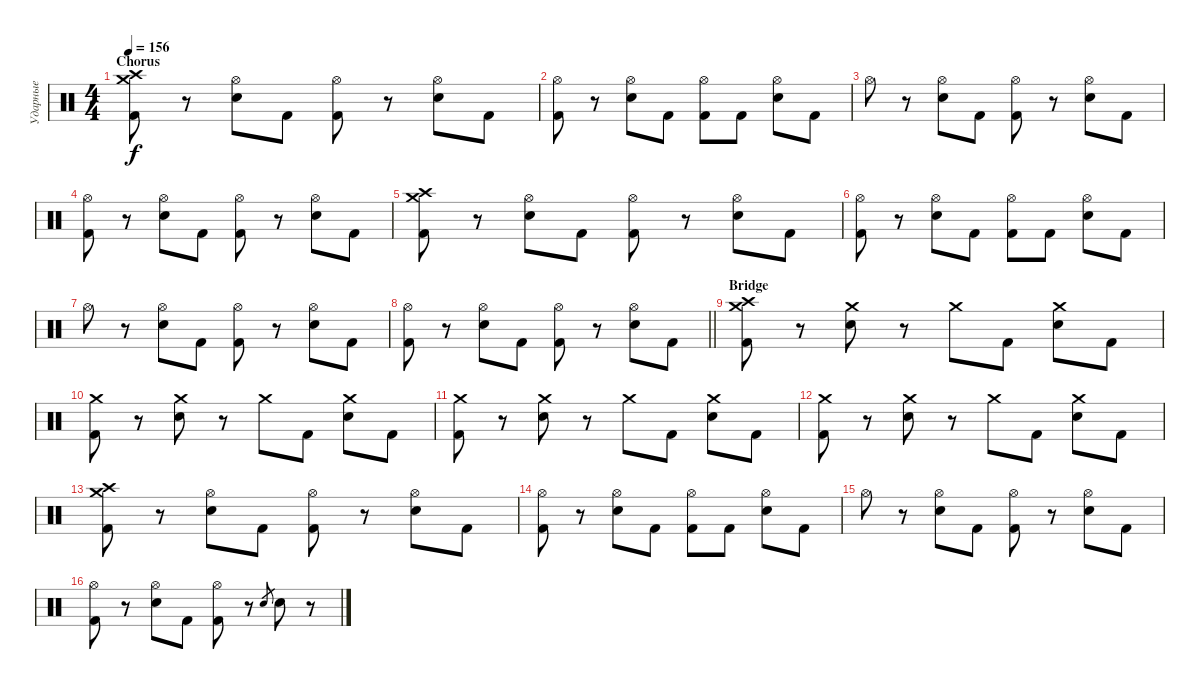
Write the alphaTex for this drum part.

\track ("Ударные" "Ударные") {instrument percussion}
\staff {score}
\articulation defaults
\ts (4 4)
\section ("" "Chorus")
\tempo 156
\clef neutral
\ks c
("Crash medium (hit)" "Crash high (hit)" "Kick (hit) 2").8{dy f} r.8 ("Hi-Hat (open)" "Electric Snare (hit)").8 "Kick (hit) 2".8 ("Hi-Hat (open)" "Kick (hit) 2").8 r.8 ("Hi-Hat (open)" "Electric Snare (hit)").8 "Kick (hit) 2".8 |
("Hi-Hat (open)" "Kick (hit) 2").8 r.8 ("Hi-Hat (open)" "Electric Snare (hit)").8 "Kick (hit) 2".8 ("Hi-Hat (open)" "Kick (hit) 2").8 "Kick (hit) 2".8 ("Hi-Hat (open)" "Electric Snare (hit)").8 "Kick (hit) 2".8 |
"Hi-Hat (open)".8 r.8 ("Hi-Hat (open)" "Electric Snare (hit)").8 "Kick (hit) 2".8 ("Hi-Hat (open)" "Kick (hit) 2").8 r.8 ("Hi-Hat (open)" "Electric Snare (hit)").8 "Kick (hit) 2".8 |
("Hi-Hat (open)" "Kick (hit) 2").8 r.8 ("Hi-Hat (open)" "Electric Snare (hit)").8 "Kick (hit) 2".8 ("Hi-Hat (open)" "Kick (hit) 2").8 r.8 ("Hi-Hat (open)" "Electric Snare (hit)").8 "Kick (hit) 2".8 |
("Crash medium (hit)" "Crash high (hit)" "Kick (hit) 2").8 r.8 ("Hi-Hat (open)" "Electric Snare (hit)").8 "Kick (hit) 2".8 ("Hi-Hat (open)" "Kick (hit) 2").8 r.8 ("Hi-Hat (open)" "Electric Snare (hit)").8 "Kick (hit) 2".8 |
("Hi-Hat (open)" "Kick (hit) 2").8 r.8 ("Hi-Hat (open)" "Electric Snare (hit)").8 "Kick (hit) 2".8 ("Hi-Hat (open)" "Kick (hit) 2").8 "Kick (hit) 2".8 ("Hi-Hat (open)" "Electric Snare (hit)").8 "Kick (hit) 2".8 |
"Hi-Hat (open)".8 r.8 ("Hi-Hat (open)" "Electric Snare (hit)").8 "Kick (hit) 2".8 ("Hi-Hat (open)" "Kick (hit) 2").8 r.8 ("Hi-Hat (open)" "Electric Snare (hit)").8 "Kick (hit) 2".8 |
\barLineRight lightlight
("Hi-Hat (open)" "Kick (hit) 2").8 r.8 ("Hi-Hat (open)" "Electric Snare (hit)").8 "Kick (hit) 2".8 ("Hi-Hat (open)" "Kick (hit) 2").8 r.8 ("Hi-Hat (open)" "Electric Snare (hit)").8 "Kick (hit) 2".8 |
\section ("" "Bridge")
("Crash high (hit)" "Crash medium (hit)" "Kick (hit) 2").8 r.8 ("Crash medium (hit)" "Electric Snare (hit)").8 r.8 "Crash medium (hit)".8 "Kick (hit) 2".8 ("Crash medium (hit)" "Electric Snare (hit)").8 "Kick (hit) 2".8 |
("Crash medium (hit)" "Kick (hit) 2").8 r.8 ("Crash medium (hit)" "Electric Snare (hit)").8 r.8 "Crash medium (hit)".8 "Kick (hit) 2".8 ("Crash medium (hit)" "Electric Snare (hit)").8 "Kick (hit) 2".8 |
("Crash medium (hit)" "Kick (hit) 2").8 r.8 ("Crash medium (hit)" "Electric Snare (hit)").8 r.8 "Crash medium (hit)".8 "Kick (hit) 2".8 ("Crash medium (hit)" "Electric Snare (hit)").8 "Kick (hit) 2".8 |
("Crash medium (hit)" "Kick (hit) 2").8 r.8 ("Crash medium (hit)" "Electric Snare (hit)").8 r.8 "Crash medium (hit)".8 "Kick (hit) 2".8 ("Crash medium (hit)" "Electric Snare (hit)").8 "Kick (hit) 2".8 |
("Crash high (hit)" "Crash medium (hit)" "Kick (hit) 2").8 r.8 ("Hi-Hat (open)" "Electric Snare (hit)").8 "Kick (hit) 2".8 ("Hi-Hat (open)" "Kick (hit) 2").8 r.8 ("Hi-Hat (open)" "Electric Snare (hit)").8 "Kick (hit) 2".8 |
("Hi-Hat (open)" "Kick (hit) 2").8 r.8 ("Hi-Hat (open)" "Electric Snare (hit)").8 "Kick (hit) 2".8 ("Hi-Hat (open)" "Kick (hit) 2").8 "Kick (hit) 2".8 ("Hi-Hat (open)" "Electric Snare (hit)").8 "Kick (hit) 2".8 |
"Hi-Hat (open)".8 r.8 ("Hi-Hat (open)" "Electric Snare (hit)").8 "Kick (hit) 2".8 ("Hi-Hat (open)" "Kick (hit) 2").8 r.8 ("Hi-Hat (open)" "Electric Snare (hit)").8 "Kick (hit) 2".8 |
("Hi-Hat (open)" "Kick (hit) 2").8 r.8 ("Hi-Hat (open)" "Electric Snare (hit)").8 "Kick (hit) 2".8 ("Hi-Hat (open)" "Kick (hit) 2").8 r.8 "Electric Snare (hit)".8{gr} "Electric Snare (hit)".8 r.8
